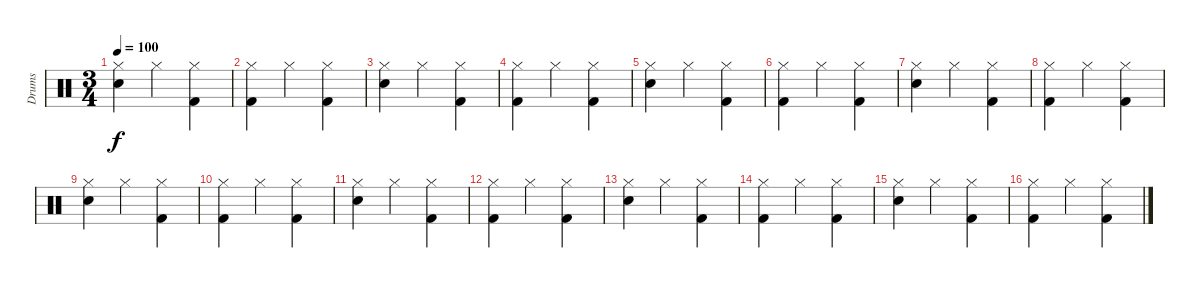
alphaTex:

\track ("Drums" "Drums") {instrument percussion}
\staff {score}
\articulation defaults
\ts (3 4)
\tempo 100
\clef neutral
\ks c
("Hi-Hat (closed)" "Electric Snare (hit)").4{dy f} "Hi-Hat (closed)".4 ("Hi-Hat (closed)" "Kick (hit) 2").4 |
("Hi-Hat (closed)" "Kick (hit) 2").4 "Hi-Hat (closed)".4 ("Hi-Hat (closed)" "Kick (hit) 2").4 |
("Hi-Hat (closed)" "Electric Snare (hit)").4 "Hi-Hat (closed)".4 ("Hi-Hat (closed)" "Kick (hit) 2").4 |
("Hi-Hat (closed)" "Kick (hit) 2").4 "Hi-Hat (closed)".4 ("Hi-Hat (closed)" "Kick (hit) 2").4 |
("Hi-Hat (closed)" "Electric Snare (hit)").4 "Hi-Hat (closed)".4 ("Hi-Hat (closed)" "Kick (hit) 2").4 |
("Hi-Hat (closed)" "Kick (hit) 2").4 "Hi-Hat (closed)".4 ("Hi-Hat (closed)" "Kick (hit) 2").4 |
("Hi-Hat (closed)" "Electric Snare (hit)").4 "Hi-Hat (closed)".4 ("Hi-Hat (closed)" "Kick (hit) 2").4 |
("Hi-Hat (closed)" "Kick (hit) 2").4 "Hi-Hat (closed)".4 ("Hi-Hat (closed)" "Kick (hit) 2").4 |
("Hi-Hat (closed)" "Electric Snare (hit)").4 "Hi-Hat (closed)".4 ("Hi-Hat (closed)" "Kick (hit) 2").4 |
("Hi-Hat (closed)" "Kick (hit) 2").4 "Hi-Hat (closed)".4 ("Hi-Hat (closed)" "Kick (hit) 2").4 |
("Hi-Hat (closed)" "Electric Snare (hit)").4 "Hi-Hat (closed)".4 ("Hi-Hat (closed)" "Kick (hit) 2").4 |
("Hi-Hat (closed)" "Kick (hit) 2").4 "Hi-Hat (closed)".4 ("Hi-Hat (closed)" "Kick (hit) 2").4 |
("Hi-Hat (closed)" "Electric Snare (hit)").4 "Hi-Hat (closed)".4 ("Hi-Hat (closed)" "Kick (hit) 2").4 |
("Hi-Hat (closed)" "Kick (hit) 2").4 "Hi-Hat (closed)".4 ("Hi-Hat (closed)" "Kick (hit) 2").4 |
("Hi-Hat (closed)" "Electric Snare (hit)").4 "Hi-Hat (closed)".4 ("Hi-Hat (closed)" "Kick (hit) 2").4 |
("Hi-Hat (closed)" "Kick (hit) 2").4 "Hi-Hat (closed)".4 ("Hi-Hat (closed)" "Kick (hit) 2").4
